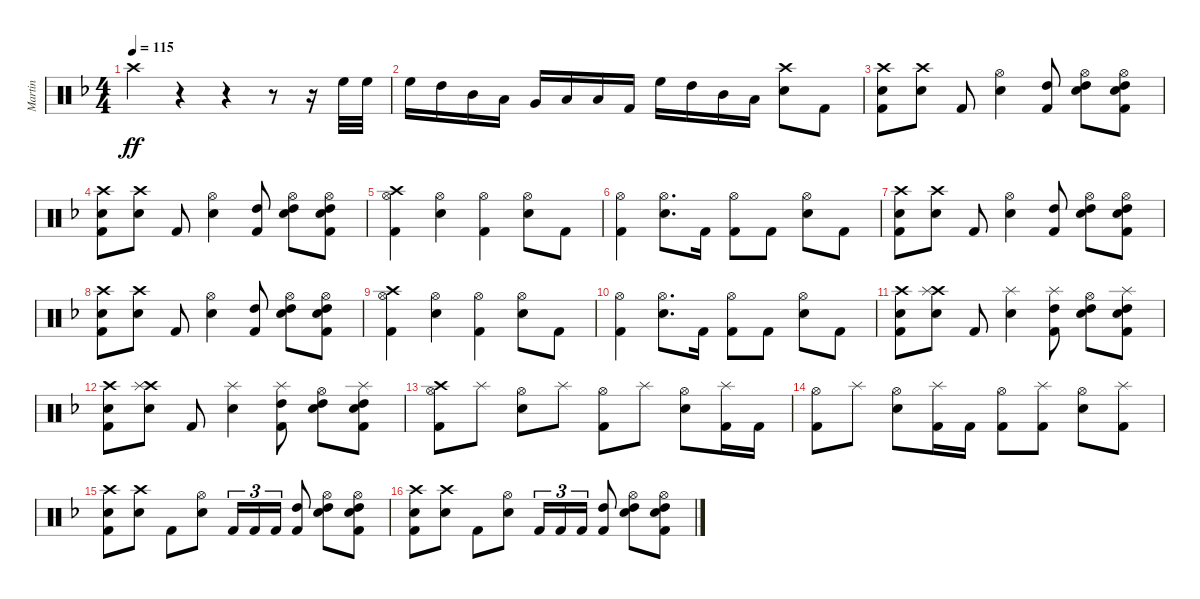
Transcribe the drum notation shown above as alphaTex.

\track ("Martin" "Martin") {instrument percussion}
\staff {score}
\articulation defaults
\ts (4 4)
\tempo 115
\clef neutral
\ks dminor "Crash high (hit)".4{dy ff}
r.4 r.4 r.8 r.16 "High Floor Tom (hit)".32 "High Floor Tom (hit)".32 |
"High Floor Tom (hit)".16 "High Tom (hit)".16 "Mid Tom (hit)".16 "Low Tom (hit)".16 "Very Low Tom (hit)".16 "Low Floor Tom (hit)".16 "Low Floor Tom (hit)".16 "Kick (hit) 2".16 "High Floor Tom (hit)".16 "High Tom (hit)".16 "Mid Tom (hit)".16 "Low Tom (hit)".16 ("Crash high (hit)" "Electric Snare (hit)").8 "Kick (hit) 2".8 |
("Crash high (hit)" "Electric Snare (hit)" "Kick (hit) 2").8 ("Crash high (hit)" "Electric Snare (hit)").8 "Kick (hit) 2".8 ("Hi-Hat (open)" "Electric Snare (hit)").4 ("High Tom (hit)" "Kick (hit) 2").8 ("Hi-Hat (open)" "Electric Snare (hit)" "High Tom (hit)").8 ("Hi-Hat (open)" "Electric Snare (hit)" "High Tom (hit)" "Kick (hit) 2").8 |
("Crash high (hit)" "Electric Snare (hit)" "Kick (hit) 2").8 ("Crash high (hit)" "Electric Snare (hit)").8 "Kick (hit) 2".8 ("Hi-Hat (open)" "Electric Snare (hit)").4 ("High Tom (hit)" "Kick (hit) 2").8 ("Hi-Hat (open)" "Electric Snare (hit)" "High Tom (hit)").8 ("Hi-Hat (open)" "Electric Snare (hit)" "High Tom (hit)" "Kick (hit) 2").8 |
("Crash high (hit)" "Hi-Hat (open)" "Kick (hit) 2").4 ("Hi-Hat (open)" "Electric Snare (hit)").4 ("Hi-Hat (open)" "Kick (hit) 2").4 ("Hi-Hat (open)" "Electric Snare (hit)").8 "Kick (hit) 2".8 |
("Hi-Hat (open)" "Kick (hit) 2").4 ("Hi-Hat (open)" "Electric Snare (hit)").8{d} "Kick (hit) 2".16 ("Hi-Hat (open)" "Kick (hit) 2").8 "Kick (hit) 2".8 ("Hi-Hat (open)" "Electric Snare (hit)").8 "Kick (hit) 2".8 |
("Crash high (hit)" "Electric Snare (hit)" "Kick (hit) 2").8 ("Crash high (hit)" "Electric Snare (hit)").8 "Kick (hit) 2".8 ("Hi-Hat (open)" "Electric Snare (hit)").4 ("High Tom (hit)" "Kick (hit) 2").8 ("Hi-Hat (open)" "Electric Snare (hit)" "High Tom (hit)").8 ("Hi-Hat (open)" "Electric Snare (hit)" "High Tom (hit)" "Kick (hit) 2").8 |
("Crash high (hit)" "Electric Snare (hit)" "Kick (hit) 2").8 ("Crash high (hit)" "Electric Snare (hit)").8 "Kick (hit) 2".8 ("Hi-Hat (open)" "Electric Snare (hit)").4 ("High Tom (hit)" "Kick (hit) 2").8 ("Hi-Hat (open)" "Electric Snare (hit)" "High Tom (hit)").8 ("Hi-Hat (open)" "Electric Snare (hit)" "High Tom (hit)" "Kick (hit) 2").8 |
("Crash high (hit)" "Hi-Hat (open)" "Kick (hit) 2").4 ("Hi-Hat (open)" "Electric Snare (hit)").4 ("Hi-Hat (open)" "Kick (hit) 2").4 ("Hi-Hat (open)" "Electric Snare (hit)").8 "Kick (hit) 2".8 |
("Hi-Hat (open)" "Kick (hit) 2").4 ("Hi-Hat (open)" "Electric Snare (hit)").8{d} "Kick (hit) 2".16 ("Hi-Hat (open)" "Kick (hit) 2").8 "Kick (hit) 2".8 ("Hi-Hat (open)" "Electric Snare (hit)").8 "Kick (hit) 2".8 |
("Crash high (hit)" "Electric Snare (hit)" "Kick (hit) 2").8 ("Crash high (hit)" "Splash (hit)" "Electric Snare (hit)").8 "Kick (hit) 2".8 ("Splash (hit)" "Electric Snare (hit)").4 ("Splash (hit)" "High Tom (hit)" "Kick (hit) 2").8 ("Hi-Hat (open)" "Electric Snare (hit)" "High Tom (hit)").8 ("Splash (hit)" "Electric Snare (hit)" "High Tom (hit)" "Kick (hit) 2").8 |
("Crash high (hit)" "Electric Snare (hit)" "Kick (hit) 2").8 ("Crash high (hit)" "Splash (hit)" "Electric Snare (hit)").8 "Kick (hit) 2".8 ("Splash (hit)" "Electric Snare (hit)").4 ("Splash (hit)" "High Tom (hit)" "Kick (hit) 2").8 ("Hi-Hat (open)" "Electric Snare (hit)" "High Tom (hit)").8 ("Splash (hit)" "Electric Snare (hit)" "High Tom (hit)" "Kick (hit) 2").8 |
("Crash high (hit)" "Hi-Hat (open)" "Kick (hit) 2").8 "Splash (hit)".8 ("Hi-Hat (open)" "Electric Snare (hit)").8 "Splash (hit)".8 ("Hi-Hat (open)" "Kick (hit) 2").8 "Splash (hit)".8 ("Hi-Hat (open)" "Electric Snare (hit)").8 ("Splash (hit)" "Kick (hit) 2").16 "Kick (hit) 2".16 |
("Hi-Hat (open)" "Kick (hit) 2").8 "Splash (hit)".8 ("Hi-Hat (open)" "Electric Snare (hit)").8 ("Splash (hit)" "Kick (hit) 2").16 "Kick (hit) 2".16 ("Hi-Hat (open)" "Kick (hit) 2").8 ("Splash (hit)" "Kick (hit) 2").8 ("Hi-Hat (open)" "Electric Snare (hit)").8 ("Splash (hit)" "Kick (hit) 2").8 |
("Crash high (hit)" "Electric Snare (hit)" "Kick (hit) 2").8 ("Crash high (hit)" "Electric Snare (hit)").8 "Kick (hit) 2".8 ("Hi-Hat (open)" "Electric Snare (hit)").8 "Kick (hit) 2".16{tu (3 2)} "Kick (hit) 2".16{tu (3 2)} "Kick (hit) 2".16{tu (3 2)} ("High Tom (hit)" "Kick (hit) 2").8 ("Hi-Hat (open)" "Electric Snare (hit)" "High Tom (hit)").8 ("Hi-Hat (open)" "Electric Snare (hit)" "High Tom (hit)" "Kick (hit) 2").8 |
("Crash high (hit)" "Electric Snare (hit)" "Kick (hit) 2").8 ("Crash high (hit)" "Electric Snare (hit)").8 "Kick (hit) 2".8 ("Hi-Hat (open)" "Electric Snare (hit)").8 "Kick (hit) 2".16{tu (3 2)} "Kick (hit) 2".16{tu (3 2)} "Kick (hit) 2".16{tu (3 2)} ("High Tom (hit)" "Kick (hit) 2").8 ("Hi-Hat (open)" "Electric Snare (hit)" "High Tom (hit)").8 ("Hi-Hat (open)" "Electric Snare (hit)" "High Tom (hit)" "Kick (hit) 2").8
